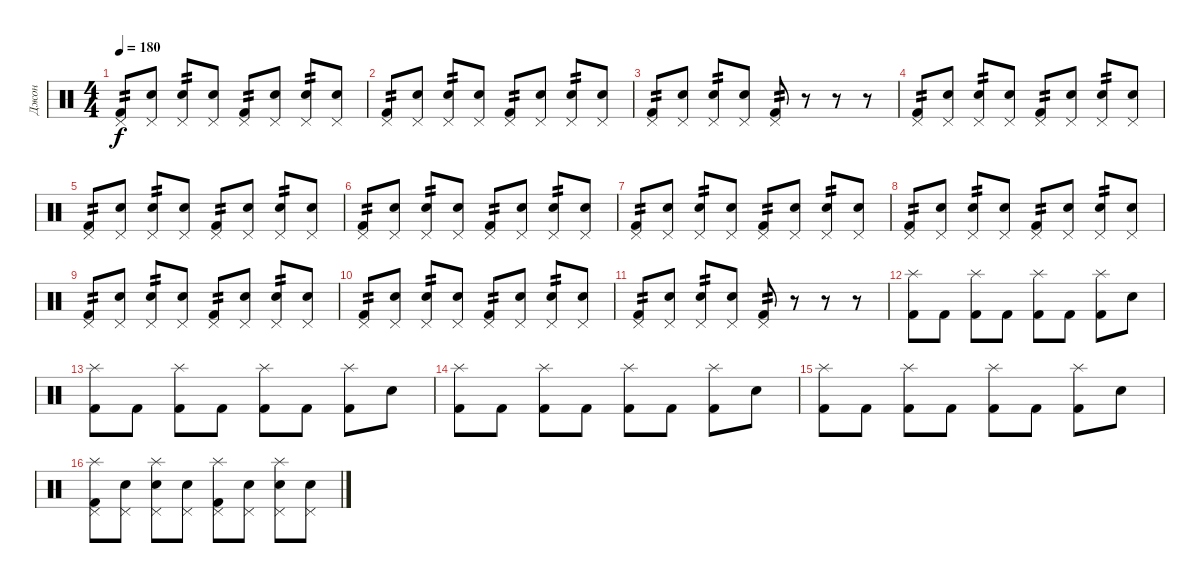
\track ("Джон" "Джон") {instrument percussion}
\staff {score}
\articulation defaults
\ts (4 4)
\tempo 180
\clef neutral
\ks c
("Pedal Hi-Hat (hit)" "Kick (hit) 2").8{tp 2 dy f} ("Pedal Hi-Hat (hit)" "Snare (hit)").8 ("Pedal Hi-Hat (hit)" "Electric Snare (hit)").8{tp 2} ("Pedal Hi-Hat (hit)" "Snare (hit)").8 ("Pedal Hi-Hat (hit)" "Kick (hit) 2").8{tp 2} ("Pedal Hi-Hat (hit)" "Snare (hit)").8 ("Pedal Hi-Hat (hit)" "Electric Snare (hit)").8{tp 2} ("Pedal Hi-Hat (hit)" "Snare (hit)").8 |
("Pedal Hi-Hat (hit)" "Kick (hit) 2").8{tp 2} ("Pedal Hi-Hat (hit)" "Snare (hit)").8 ("Pedal Hi-Hat (hit)" "Electric Snare (hit)").8{tp 2} ("Pedal Hi-Hat (hit)" "Snare (hit)").8 ("Pedal Hi-Hat (hit)" "Kick (hit) 2").8{tp 2} ("Pedal Hi-Hat (hit)" "Snare (hit)").8 ("Pedal Hi-Hat (hit)" "Electric Snare (hit)").8{tp 2} ("Pedal Hi-Hat (hit)" "Snare (hit)").8 |
("Pedal Hi-Hat (hit)" "Kick (hit) 2").8{tp 2} ("Pedal Hi-Hat (hit)" "Snare (hit)").8 ("Pedal Hi-Hat (hit)" "Electric Snare (hit)").8{tp 2} ("Pedal Hi-Hat (hit)" "Snare (hit)").8 ("Pedal Hi-Hat (hit)" "Kick (hit) 2").8{tp 2} r.8 r.8 r.8 |
("Pedal Hi-Hat (hit)" "Kick (hit) 2").8{tp 2} ("Pedal Hi-Hat (hit)" "Snare (hit)").8 ("Pedal Hi-Hat (hit)" "Electric Snare (hit)").8{tp 2} ("Pedal Hi-Hat (hit)" "Snare (hit)").8 ("Pedal Hi-Hat (hit)" "Kick (hit) 2").8{tp 2} ("Pedal Hi-Hat (hit)" "Snare (hit)").8 ("Pedal Hi-Hat (hit)" "Electric Snare (hit)").8{tp 2} ("Pedal Hi-Hat (hit)" "Snare (hit)").8 |
("Pedal Hi-Hat (hit)" "Kick (hit) 2").8{tp 2} ("Pedal Hi-Hat (hit)" "Snare (hit)").8 ("Pedal Hi-Hat (hit)" "Electric Snare (hit)").8{tp 2} ("Pedal Hi-Hat (hit)" "Snare (hit)").8 ("Pedal Hi-Hat (hit)" "Kick (hit) 2").8{tp 2} ("Pedal Hi-Hat (hit)" "Snare (hit)").8 ("Pedal Hi-Hat (hit)" "Electric Snare (hit)").8{tp 2} ("Pedal Hi-Hat (hit)" "Snare (hit)").8 |
("Pedal Hi-Hat (hit)" "Kick (hit) 2").8{tp 2} ("Pedal Hi-Hat (hit)" "Snare (hit)").8 ("Pedal Hi-Hat (hit)" "Electric Snare (hit)").8{tp 2} ("Pedal Hi-Hat (hit)" "Snare (hit)").8 ("Pedal Hi-Hat (hit)" "Kick (hit) 2").8{tp 2} ("Pedal Hi-Hat (hit)" "Snare (hit)").8 ("Pedal Hi-Hat (hit)" "Electric Snare (hit)").8{tp 2} ("Pedal Hi-Hat (hit)" "Snare (hit)").8 |
("Pedal Hi-Hat (hit)" "Kick (hit) 2").8{tp 2} ("Pedal Hi-Hat (hit)" "Snare (hit)").8 ("Pedal Hi-Hat (hit)" "Electric Snare (hit)").8{tp 2} ("Pedal Hi-Hat (hit)" "Snare (hit)").8 ("Pedal Hi-Hat (hit)" "Kick (hit) 2").8{tp 2} ("Pedal Hi-Hat (hit)" "Snare (hit)").8 ("Pedal Hi-Hat (hit)" "Electric Snare (hit)").8{tp 2} ("Pedal Hi-Hat (hit)" "Electric Snare (hit)").8 |
("Pedal Hi-Hat (hit)" "Kick (hit) 2").8{tp 2} ("Pedal Hi-Hat (hit)" "Snare (hit)").8 ("Pedal Hi-Hat (hit)" "Electric Snare (hit)").8{tp 2} ("Pedal Hi-Hat (hit)" "Snare (hit)").8 ("Pedal Hi-Hat (hit)" "Kick (hit) 2").8{tp 2} ("Pedal Hi-Hat (hit)" "Snare (hit)").8 ("Pedal Hi-Hat (hit)" "Electric Snare (hit)").8{tp 2} ("Pedal Hi-Hat (hit)" "Snare (hit)").8 |
("Pedal Hi-Hat (hit)" "Kick (hit) 2").8{tp 2} ("Pedal Hi-Hat (hit)" "Snare (hit)").8 ("Pedal Hi-Hat (hit)" "Electric Snare (hit)").8{tp 2} ("Pedal Hi-Hat (hit)" "Snare (hit)").8 ("Pedal Hi-Hat (hit)" "Kick (hit) 2").8{tp 2} ("Pedal Hi-Hat (hit)" "Snare (hit)").8 ("Pedal Hi-Hat (hit)" "Electric Snare (hit)").8{tp 2} ("Pedal Hi-Hat (hit)" "Snare (hit)").8 |
("Pedal Hi-Hat (hit)" "Kick (hit) 2").8{tp 2} ("Pedal Hi-Hat (hit)" "Snare (hit)").8 ("Pedal Hi-Hat (hit)" "Electric Snare (hit)").8{tp 2} ("Pedal Hi-Hat (hit)" "Snare (hit)").8 ("Pedal Hi-Hat (hit)" "Kick (hit) 2").8{tp 2} ("Pedal Hi-Hat (hit)" "Snare (hit)").8 ("Pedal Hi-Hat (hit)" "Electric Snare (hit)").8{tp 2} ("Pedal Hi-Hat (hit)" "Snare (hit)").8 |
("Pedal Hi-Hat (hit)" "Kick (hit) 2").8{tp 2} ("Pedal Hi-Hat (hit)" "Snare (hit)").8 ("Pedal Hi-Hat (hit)" "Electric Snare (hit)").8{tp 2} ("Pedal Hi-Hat (hit)" "Snare (hit)").8 ("Pedal Hi-Hat (hit)" "Kick (hit) 2").8{tp 2} r.8 r.8 r.8 |
("Splash (hit)" "Kick (hit) 2").8 "Kick (hit) 2".8 ("Splash (hit)" "Kick (hit) 2").8 "Kick (hit) 2".8 ("Splash (hit)" "Kick (hit) 2").8 "Kick (hit) 2".8 ("Splash (hit)" "Kick (hit) 2").8 "Snare (hit)".8 |
("Splash (hit)" "Kick (hit) 2").8 "Kick (hit) 2".8 ("Splash (hit)" "Kick (hit) 2").8 "Kick (hit) 2".8 ("Splash (hit)" "Kick (hit) 2").8 "Kick (hit) 2".8 ("Splash (hit)" "Kick (hit) 2").8 "Snare (hit)".8 |
("Splash (hit)" "Kick (hit) 2").8 "Kick (hit) 2".8 ("Splash (hit)" "Kick (hit) 2").8 "Kick (hit) 2".8 ("Splash (hit)" "Kick (hit) 2").8 "Kick (hit) 2".8 ("Splash (hit)" "Kick (hit) 2").8 "Snare (hit)".8 |
("Splash (hit)" "Kick (hit) 2").8 "Kick (hit) 2".8 ("Splash (hit)" "Kick (hit) 2").8 "Kick (hit) 2".8 ("Splash (hit)" "Kick (hit) 2").8 "Kick (hit) 2".8 ("Splash (hit)" "Kick (hit) 2").8 "Snare (hit)".8 |
("Splash (hit)" "Pedal Hi-Hat (hit)" "Kick (hit) 2").8 ("Pedal Hi-Hat (hit)" "Snare (hit)").8 ("Splash (hit)" "Pedal Hi-Hat (hit)" "Electric Snare (hit)").8 ("Pedal Hi-Hat (hit)" "Snare (hit)").8 ("Splash (hit)" "Pedal Hi-Hat (hit)" "Kick (hit) 2").8 ("Pedal Hi-Hat (hit)" "Snare (hit)").8 ("Splash (hit)" "Pedal Hi-Hat (hit)" "Electric Snare (hit)").8 ("Pedal Hi-Hat (hit)" "Snare (hit)").8
